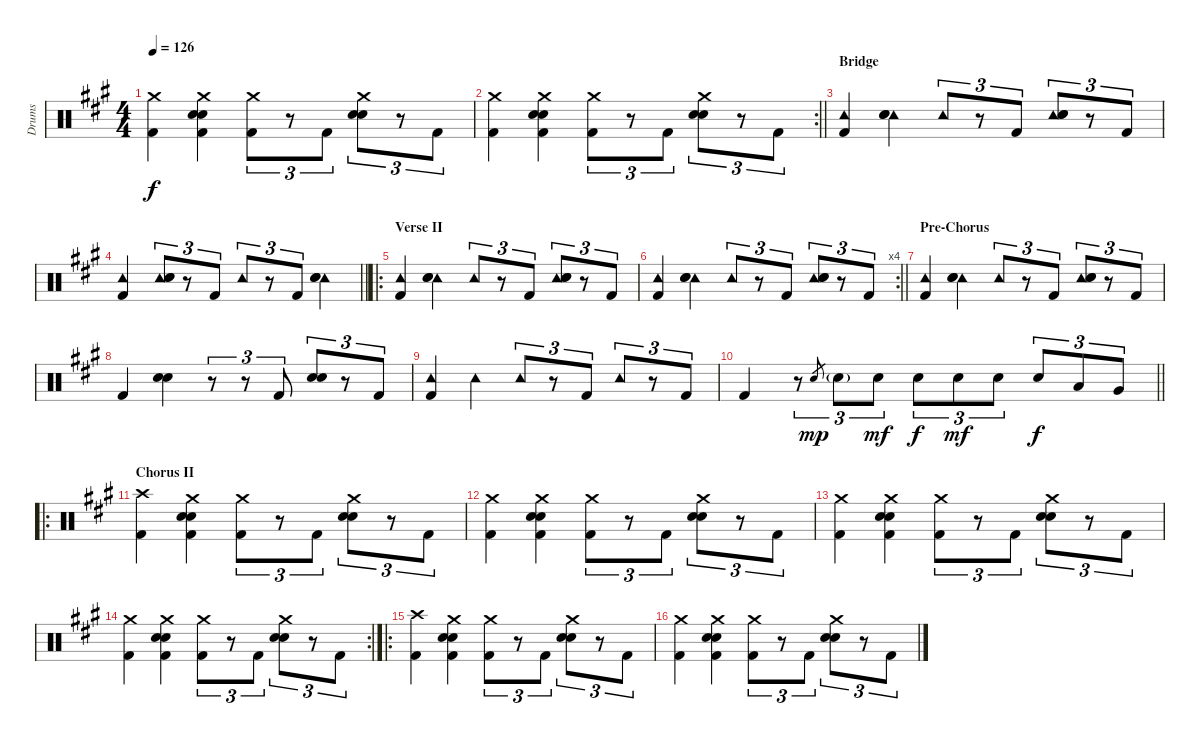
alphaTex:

\track ("Drums" "Drums") {instrument percussion}
\staff {score}
\articulation defaults
\ts (4 4)
\tempo 126
\clef neutral
\ks a
("Crash medium (hit)" "Kick (hit) 2").4{dy f} ("Crash medium (hit)" "Electric Snare (hit)" "Hand Clap (hit)" "Kick (hit) 2").4 ("Crash medium (hit)" "Kick (hit) 2").8{tu (3 2)} r.8{tu (3 2)} "Kick (hit) 2".8{tu (3 2)} ("Crash medium (hit)" "Electric Snare (hit)" "Hand Clap (hit)").8{tu (3 2)} r.8{tu (3 2)} "Kick (hit) 2".8{tu (3 2)} |
\rc 2
\barLineRight lightlight
("Crash medium (hit)" "Kick (hit) 2").4 ("Crash medium (hit)" "Electric Snare (hit)" "Hand Clap (hit)" "Kick (hit) 2").4 ("Crash medium (hit)" "Kick (hit) 2").8{tu (3 2)} r.8{tu (3 2)} "Kick (hit) 2".8{tu (3 2)} ("Crash medium (hit)" "Electric Snare (hit)" "Hand Clap (hit)").8{tu (3 2)} r.8{tu (3 2)} "Kick (hit) 2".8{tu (3 2)} |
\section ("" "Bridge")
("Tambourine (hit)" "Kick (hit) 2").4 ("Tambourine (hit)" "Electric Snare (hit)" "Hand Clap (hit)").4 "Tambourine (hit)".8{tu (3 2)} r.8{tu (3 2)} "Kick (hit) 2".8{tu (3 2)} ("Tambourine (hit)" "Electric Snare (hit)" "Hand Clap (hit)").8{tu (3 2)} r.8{tu (3 2)} "Kick (hit) 2".8{tu (3 2)} |
\barLineRight lightlight
("Tambourine (hit)" "Kick (hit) 2").4 ("Tambourine (hit)" "Electric Snare (hit)" "Hand Clap (hit)").8{tu (3 2)} r.8{tu (3 2)} "Kick (hit) 2".8{tu (3 2)} "Tambourine (hit)".8{tu (3 2)} r.8{tu (3 2)} "Kick (hit) 2".8{tu (3 2)} ("Tambourine (hit)" "Electric Snare (hit)" "Hand Clap (hit)").4 |
\ro
\section ("" "Verse II")
("Tambourine (hit)" "Kick (hit) 2").4 ("Tambourine (hit)" "Electric Snare (hit)" "Hand Clap (hit)").4 "Tambourine (hit)".8{tu (3 2)} r.8{tu (3 2)} "Kick (hit) 2".8{tu (3 2)} ("Tambourine (hit)" "Electric Snare (hit)" "Hand Clap (hit)").8{tu (3 2)} r.8{tu (3 2)} "Kick (hit) 2".8{tu (3 2)} |
\rc 4
\barLineRight lightlight
("Tambourine (hit)" "Kick (hit) 2").4 ("Tambourine (hit)" "Electric Snare (hit)" "Hand Clap (hit)").4 "Tambourine (hit)".8{tu (3 2)} r.8{tu (3 2)} "Kick (hit) 2".8{tu (3 2)} ("Tambourine (hit)" "Electric Snare (hit)" "Hand Clap (hit)").8{tu (3 2)} r.8{tu (3 2)} "Kick (hit) 2".8{tu (3 2)} |
\section ("" "Pre-Chorus")
("Tambourine (hit)" "Kick (hit) 2").4 ("Tambourine (hit)" "Electric Snare (hit)" "Hand Clap (hit)").4 "Tambourine (hit)".8{tu (3 2)} r.8{tu (3 2)} "Kick (hit) 2".8{tu (3 2)} ("Tambourine (hit)" "Electric Snare (hit)" "Hand Clap (hit)").8{tu (3 2)} r.8{tu (3 2)} "Kick (hit) 2".8{tu (3 2)} |
"Kick (hit) 2".4 ("Electric Snare (hit)" "Hand Clap (hit)").4 r.8{tu (3 2)} r.8{tu (3 2)} "Kick (hit) 2".8{tu (3 2)} ("Electric Snare (hit)" "Hand Clap (hit)").8{tu (3 2)} r.8{tu (3 2)} "Kick (hit) 2".8{tu (3 2)} |
("Tambourine (hit)" "Kick (hit) 2").4 "Tambourine (hit)".4 "Tambourine (hit)".8{tu (3 2)} r.8{tu (3 2)} "Kick (hit) 2".8{tu (3 2)} "Tambourine (hit)".8{tu (3 2)} r.8{tu (3 2)} "Kick (hit) 2".8{tu (3 2)} |
\barLineRight lightlight "Kick (hit) 2".4
r.8{tu (3 2)} "Snare (hit) 2".8{gr dy mp} "Electric Snare (hit)"{g}.8{tu (3 2)} "Electric Snare (hit)".8{tu (3 2) dy mf} "Electric Snare (hit)".8{tu (3 2) dy f} "Electric Snare (hit)".8{tu (3 2) dy mf} "Electric Snare (hit)".8{tu (3 2)} "Electric Snare (hit)".8{tu (3 2) dy f} "Low Tom (hit)".8{tu (3 2)} "Very Low Tom (hit)".8{tu (3 2)} |
\ro
\section ("" "Chorus II")
("Crash high (hit)" "Kick (hit) 2").4 ("Crash medium (hit)" "Electric Snare (hit)" "Hand Clap (hit)" "Kick (hit) 2").4 ("Crash medium (hit)" "Kick (hit) 2").8{tu (3 2)} r.8{tu (3 2)} "Kick (hit) 2".8{tu (3 2)} ("Crash medium (hit)" "Electric Snare (hit)" "Hand Clap (hit)").8{tu (3 2)} r.8{tu (3 2)} "Kick (hit) 2".8{tu (3 2)} |
("Crash medium (hit)" "Kick (hit) 2").4 ("Crash medium (hit)" "Electric Snare (hit)" "Hand Clap (hit)" "Kick (hit) 2").4 ("Crash medium (hit)" "Kick (hit) 2").8{tu (3 2)} r.8{tu (3 2)} "Kick (hit) 2".8{tu (3 2)} ("Crash medium (hit)" "Electric Snare (hit)" "Hand Clap (hit)").8{tu (3 2)} r.8{tu (3 2)} "Kick (hit) 2".8{tu (3 2)} |
("Crash medium (hit)" "Kick (hit) 2").4 ("Crash medium (hit)" "Electric Snare (hit)" "Hand Clap (hit)" "Kick (hit) 2").4 ("Crash medium (hit)" "Kick (hit) 2").8{tu (3 2)} r.8{tu (3 2)} "Kick (hit) 2".8{tu (3 2)} ("Crash medium (hit)" "Electric Snare (hit)" "Hand Clap (hit)").8{tu (3 2)} r.8{tu (3 2)} "Kick (hit) 2".8{tu (3 2)} |
\rc 2
("Crash medium (hit)" "Kick (hit) 2").4 ("Crash medium (hit)" "Electric Snare (hit)" "Hand Clap (hit)" "Kick (hit) 2").4 ("Crash medium (hit)" "Kick (hit) 2").8{tu (3 2)} r.8{tu (3 2)} "Kick (hit) 2".8{tu (3 2)} ("Crash medium (hit)" "Electric Snare (hit)" "Hand Clap (hit)").8{tu (3 2)} r.8{tu (3 2)} "Kick (hit) 2".8{tu (3 2)} |
\ro
("Crash high (hit)" "Kick (hit) 2").4 ("Crash medium (hit)" "Electric Snare (hit)" "Hand Clap (hit)" "Kick (hit) 2").4 ("Crash medium (hit)" "Kick (hit) 2").8{tu (3 2)} r.8{tu (3 2)} "Kick (hit) 2".8{tu (3 2)} ("Crash medium (hit)" "Electric Snare (hit)" "Hand Clap (hit)").8{tu (3 2)} r.8{tu (3 2)} "Kick (hit) 2".8{tu (3 2)} |
("Crash medium (hit)" "Kick (hit) 2").4 ("Crash medium (hit)" "Electric Snare (hit)" "Hand Clap (hit)" "Kick (hit) 2").4 ("Crash medium (hit)" "Kick (hit) 2").8{tu (3 2)} r.8{tu (3 2)} "Kick (hit) 2".8{tu (3 2)} ("Crash medium (hit)" "Electric Snare (hit)" "Hand Clap (hit)").8{tu (3 2)} r.8{tu (3 2)} "Kick (hit) 2".8{tu (3 2)}
